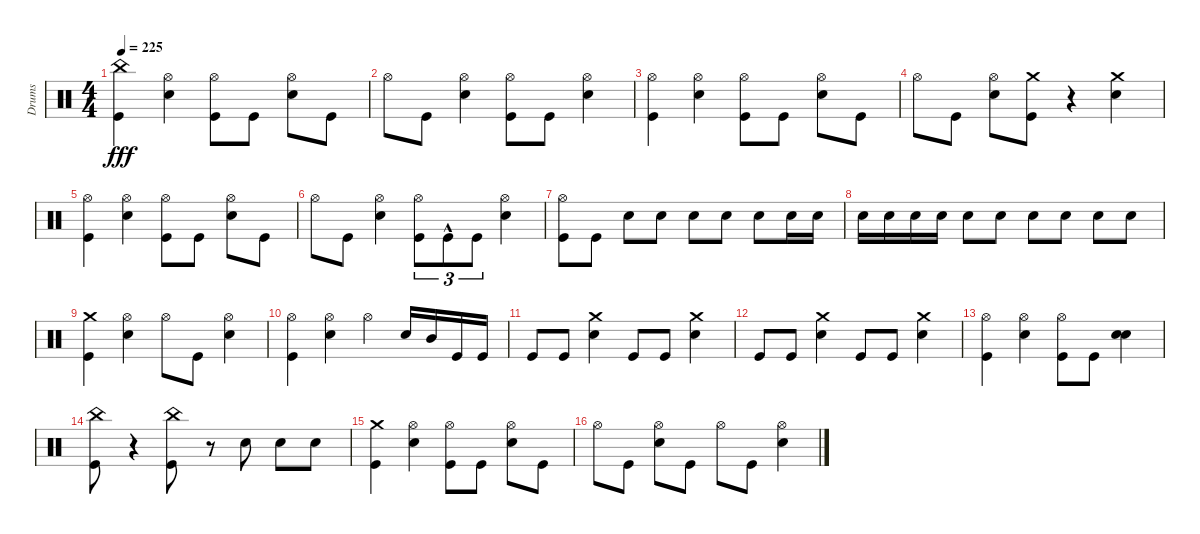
\track ("Drums" "Drums") {instrument percussion}
\staff {score}
\articulation defaults
\ts (4 4)
\tempo 225
\clef neutral
\ks c
("China (hit)" "Kick (hit)").4{dy fff} ("Snare (hit) 2" "Hi-Hat (open)").4 ("Kick (hit)" "Hi-Hat (open)").8 "Kick (hit)".8 ("Snare (hit) 2" "Hi-Hat (open)").8 "Kick (hit)".8 |
"Hi-Hat (open)".8 "Kick (hit)".8 ("Snare (hit) 2" "Hi-Hat (open)").4 ("Kick (hit)" "Hi-Hat (open)").8 "Kick (hit)".8 ("Snare (hit) 2" "Hi-Hat (open)").4 |
("Kick (hit)" "Hi-Hat (open)").4 ("Snare (hit) 2" "Hi-Hat (open)").4 ("Kick (hit)" "Hi-Hat (open)").8 "Kick (hit)".8 ("Snare (hit) 2" "Hi-Hat (open)").8 "Kick (hit)".8 |
"Hi-Hat (open)".8 "Kick (hit)".8 ("Snare (hit) 2" "Hi-Hat (open)").8 ("Crash medium (hit)" "Kick (hit)").8 r.4 ("Snare (hit) 2" "Crash medium (hit)").4 |
("Kick (hit)" "Hi-Hat (open)").4 ("Snare (hit) 2" "Hi-Hat (open)").4 ("Kick (hit)" "Hi-Hat (open)").8 "Kick (hit)".8 ("Snare (hit) 2" "Hi-Hat (open)").8 "Kick (hit)".8 |
"Hi-Hat (open)".8 "Kick (hit)".8 ("Snare (hit) 2" "Hi-Hat (open)").4 ("Kick (hit)" "Hi-Hat (open)").8{tu (3 2)} "Kick (hit)"{hac}.8{tu (3 2)} "Kick (hit)".8{tu (3 2)} ("Hi-Hat (open)" "Snare (hit) 2").4 |
("Kick (hit)" "Hi-Hat (open)").8 "Kick (hit)".8 "Snare (hit) 2".8 "Snare (hit) 2".8 "Snare (hit) 2".8 "Snare (hit) 2".8 "Snare (hit) 2".8 "Snare (hit) 2".16 "Snare (hit) 2".16 |
"Snare (hit) 2".16 "Snare (hit) 2".16 "Snare (hit) 2".16 "Snare (hit) 2".16 "Snare (hit) 2".8 "Snare (hit) 2".8 "Snare (hit) 2".8 "Snare (hit) 2".8 "Snare (hit) 2".8 "Snare (hit) 2".8 |
("Kick (hit)" "Crash medium (hit)").4 ("Snare (hit) 2" "Hi-Hat (open)").4 "Hi-Hat (open)".8 "Kick (hit)".8 ("Snare (hit) 2" "Hi-Hat (open)").4 |
("Kick (hit)" "Hi-Hat (open)").4 ("Snare (hit) 2" "Hi-Hat (open)").4 "Hi-Hat (open)".4 "Snare (hit) 2".16 "Mid Tom (hit)".16 "Kick (hit)".16 "Kick (hit)".16 |
"Kick (hit)".8 "Kick (hit)".8 ("Snare (hit) 2" "Crash medium (hit)").4 "Kick (hit)".8 "Kick (hit)".8 ("Snare (hit) 2" "Crash medium (hit)").4 |
"Kick (hit)".8 "Kick (hit)".8 ("Crash medium (hit)" "Snare (hit) 2").4 "Kick (hit)".8 "Kick (hit)".8 ("Crash medium (hit)" "Snare (hit) 2").4 |
("Hi-Hat (open)" "Kick (hit)").4 ("Snare (hit) 2" "Hi-Hat (open)").4 ("Kick (hit)" "Hi-Hat (open)").8 "Kick (hit)".8 ("Snare (hit) 2" "Snare (hit) 2").4 |
("China (hit)" "Kick (hit)").8 r.4 ("China (hit)" "Kick (hit)").8 r.8 "Snare (hit) 2".8 "Snare (hit) 2".8 "Snare (hit) 2".8 |
("Kick (hit)" "Crash medium (hit)").4 ("Snare (hit) 2" "Hi-Hat (open)").4 ("Kick (hit)" "Hi-Hat (open)").8 "Kick (hit)".8 ("Snare (hit) 2" "Hi-Hat (open)").8 "Kick (hit)".8 |
"Hi-Hat (open)".8 "Kick (hit)".8 ("Snare (hit) 2" "Hi-Hat (open)").8 "Kick (hit)".8 "Hi-Hat (open)".8 "Kick (hit)".8 ("Snare (hit) 2" "Hi-Hat (open)").4
